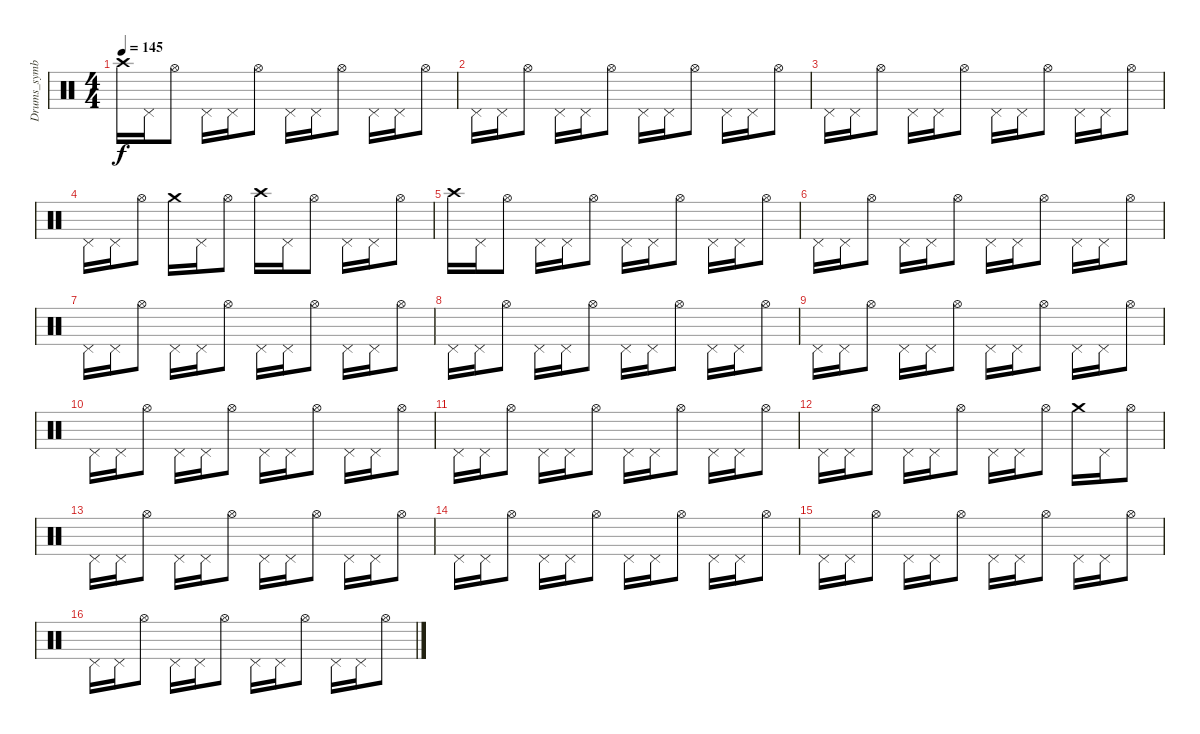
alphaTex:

\track ("Drums_symbal" "Drums_symb") {instrument percussion}
\staff {score}
\articulation defaults
\ts (4 4)
\tempo 145
\clef neutral
\ks c "Crash high (hit)".16{dy f} "Pedal Hi-Hat (hit)".16 "Hi-Hat (open)".8 "Pedal Hi-Hat (hit)".16 "Pedal Hi-Hat (hit)".16 "Hi-Hat (open)".8 "Pedal Hi-Hat (hit)".16 "Pedal Hi-Hat (hit)".16 "Hi-Hat (open)".8 "Pedal Hi-Hat (hit)".16 "Pedal Hi-Hat (hit)".16 "Hi-Hat (open)".8
|
"Pedal Hi-Hat (hit)".16 "Pedal Hi-Hat (hit)".16 "Hi-Hat (open)".8 "Pedal Hi-Hat (hit)".16 "Pedal Hi-Hat (hit)".16 "Hi-Hat (open)".8 "Pedal Hi-Hat (hit)".16 "Pedal Hi-Hat (hit)".16 "Hi-Hat (open)".8 "Pedal Hi-Hat (hit)".16 "Pedal Hi-Hat (hit)".16 "Hi-Hat (open)".8 |
"Pedal Hi-Hat (hit)".16 "Pedal Hi-Hat (hit)".16 "Hi-Hat (open)".8 "Pedal Hi-Hat (hit)".16 "Pedal Hi-Hat (hit)".16 "Hi-Hat (open)".8 "Pedal Hi-Hat (hit)".16 "Pedal Hi-Hat (hit)".16 "Hi-Hat (open)".8 "Pedal Hi-Hat (hit)".16 "Pedal Hi-Hat (hit)".16 "Hi-Hat (open)".8 |
"Pedal Hi-Hat (hit)".16 "Pedal Hi-Hat (hit)".16 "Hi-Hat (open)".8 "Crash medium (hit)".16 "Pedal Hi-Hat (hit)".16 "Hi-Hat (open)".8 "Crash high (hit)".16 "Pedal Hi-Hat (hit)".16 "Hi-Hat (open)".8 "Pedal Hi-Hat (hit)".16 "Pedal Hi-Hat (hit)".16 "Hi-Hat (open)".8 |
"Crash high (hit)".16 "Pedal Hi-Hat (hit)".16 "Hi-Hat (open)".8 "Pedal Hi-Hat (hit)".16 "Pedal Hi-Hat (hit)".16 "Hi-Hat (open)".8 "Pedal Hi-Hat (hit)".16 "Pedal Hi-Hat (hit)".16 "Hi-Hat (open)".8 "Pedal Hi-Hat (hit)".16 "Pedal Hi-Hat (hit)".16 "Hi-Hat (open)".8 |
"Pedal Hi-Hat (hit)".16 "Pedal Hi-Hat (hit)".16 "Hi-Hat (open)".8 "Pedal Hi-Hat (hit)".16 "Pedal Hi-Hat (hit)".16 "Hi-Hat (open)".8 "Pedal Hi-Hat (hit)".16 "Pedal Hi-Hat (hit)".16 "Hi-Hat (open)".8 "Pedal Hi-Hat (hit)".16 "Pedal Hi-Hat (hit)".16 "Hi-Hat (open)".8 |
"Pedal Hi-Hat (hit)".16 "Pedal Hi-Hat (hit)".16 "Hi-Hat (open)".8 "Pedal Hi-Hat (hit)".16 "Pedal Hi-Hat (hit)".16 "Hi-Hat (open)".8 "Pedal Hi-Hat (hit)".16 "Pedal Hi-Hat (hit)".16 "Hi-Hat (open)".8 "Pedal Hi-Hat (hit)".16 "Pedal Hi-Hat (hit)".16 "Hi-Hat (open)".8 |
"Pedal Hi-Hat (hit)".16 "Pedal Hi-Hat (hit)".16 "Hi-Hat (open)".8 "Pedal Hi-Hat (hit)".16 "Pedal Hi-Hat (hit)".16 "Hi-Hat (open)".8 "Pedal Hi-Hat (hit)".16 "Pedal Hi-Hat (hit)".16 "Hi-Hat (open)".8 "Pedal Hi-Hat (hit)".16 "Pedal Hi-Hat (hit)".16 "Hi-Hat (open)".8 |
"Pedal Hi-Hat (hit)".16 "Pedal Hi-Hat (hit)".16 "Hi-Hat (open)".8 "Pedal Hi-Hat (hit)".16 "Pedal Hi-Hat (hit)".16 "Hi-Hat (open)".8 "Pedal Hi-Hat (hit)".16 "Pedal Hi-Hat (hit)".16 "Hi-Hat (open)".8 "Pedal Hi-Hat (hit)".16 "Pedal Hi-Hat (hit)".16 "Hi-Hat (open)".8 |
"Pedal Hi-Hat (hit)".16 "Pedal Hi-Hat (hit)".16 "Hi-Hat (open)".8 "Pedal Hi-Hat (hit)".16 "Pedal Hi-Hat (hit)".16 "Hi-Hat (open)".8 "Pedal Hi-Hat (hit)".16 "Pedal Hi-Hat (hit)".16 "Hi-Hat (open)".8 "Pedal Hi-Hat (hit)".16 "Pedal Hi-Hat (hit)".16 "Hi-Hat (open)".8 |
"Pedal Hi-Hat (hit)".16 "Pedal Hi-Hat (hit)".16 "Hi-Hat (open)".8 "Pedal Hi-Hat (hit)".16 "Pedal Hi-Hat (hit)".16 "Hi-Hat (open)".8 "Pedal Hi-Hat (hit)".16 "Pedal Hi-Hat (hit)".16 "Hi-Hat (open)".8 "Pedal Hi-Hat (hit)".16 "Pedal Hi-Hat (hit)".16 "Hi-Hat (open)".8 |
"Pedal Hi-Hat (hit)".16 "Pedal Hi-Hat (hit)".16 "Hi-Hat (open)".8 "Pedal Hi-Hat (hit)".16 "Pedal Hi-Hat (hit)".16 "Hi-Hat (open)".8 "Pedal Hi-Hat (hit)".16 "Pedal Hi-Hat (hit)".16 "Hi-Hat (open)".8 "Crash medium (hit)".16 "Pedal Hi-Hat (hit)".16 "Hi-Hat (open)".8 |
"Pedal Hi-Hat (hit)".16 "Pedal Hi-Hat (hit)".16 "Hi-Hat (open)".8 "Pedal Hi-Hat (hit)".16 "Pedal Hi-Hat (hit)".16 "Hi-Hat (open)".8 "Pedal Hi-Hat (hit)".16 "Pedal Hi-Hat (hit)".16 "Hi-Hat (open)".8 "Pedal Hi-Hat (hit)".16 "Pedal Hi-Hat (hit)".16 "Hi-Hat (open)".8 |
"Pedal Hi-Hat (hit)".16 "Pedal Hi-Hat (hit)".16 "Hi-Hat (open)".8 "Pedal Hi-Hat (hit)".16 "Pedal Hi-Hat (hit)".16 "Hi-Hat (open)".8 "Pedal Hi-Hat (hit)".16 "Pedal Hi-Hat (hit)".16 "Hi-Hat (open)".8 "Pedal Hi-Hat (hit)".16 "Pedal Hi-Hat (hit)".16 "Hi-Hat (open)".8 |
"Pedal Hi-Hat (hit)".16 "Pedal Hi-Hat (hit)".16 "Hi-Hat (open)".8 "Pedal Hi-Hat (hit)".16 "Pedal Hi-Hat (hit)".16 "Hi-Hat (open)".8 "Pedal Hi-Hat (hit)".16 "Pedal Hi-Hat (hit)".16 "Hi-Hat (open)".8 "Pedal Hi-Hat (hit)".16 "Pedal Hi-Hat (hit)".16 "Hi-Hat (open)".8 |
"Pedal Hi-Hat (hit)".16 "Pedal Hi-Hat (hit)".16 "Hi-Hat (open)".8 "Pedal Hi-Hat (hit)".16 "Pedal Hi-Hat (hit)".16 "Hi-Hat (open)".8 "Pedal Hi-Hat (hit)".16 "Pedal Hi-Hat (hit)".16 "Hi-Hat (open)".8 "Pedal Hi-Hat (hit)".16 "Pedal Hi-Hat (hit)".16 "Hi-Hat (open)".8
